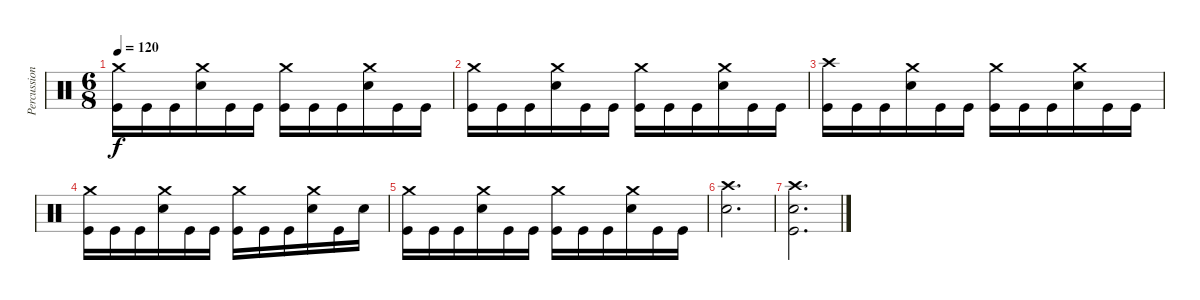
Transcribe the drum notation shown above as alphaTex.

\track ("Percussion" "Percussion") {instrument percussion}
\staff {score}
\articulation defaults
\ts (6 8)
\tempo 120
\clef neutral
\ks c
("Crash medium (hit)" "Kick (hit)").16{dy f} "Kick (hit)".16 "Kick (hit)".16 ("Crash medium (hit)" "Snare (hit) 2").16 "Kick (hit)".16 "Kick (hit)".16 ("Crash medium (hit)" "Kick (hit)").16 "Kick (hit)".16 "Kick (hit)".16 ("Crash medium (hit)" "Snare (hit) 2").16 "Kick (hit)".16 "Kick (hit)".16 |
("Crash medium (hit)" "Kick (hit)").16 "Kick (hit)".16 "Kick (hit)".16 ("Crash medium (hit)" "Snare (hit) 2").16 "Kick (hit)".16 "Kick (hit)".16 ("Crash medium (hit)" "Kick (hit)").16 "Kick (hit)".16 "Kick (hit)".16 ("Crash medium (hit)" "Snare (hit) 2").16 "Kick (hit)".16 "Kick (hit)".16 |
("Crash high (hit)" "Kick (hit)").16 "Kick (hit)".16 "Kick (hit)".16 ("Crash medium (hit)" "Snare (hit) 2").16 "Kick (hit)".16 "Kick (hit)".16 ("Crash medium (hit)" "Kick (hit)").16 "Kick (hit)".16 "Kick (hit)".16 ("Crash medium (hit)" "Snare (hit) 2").16 "Kick (hit)".16 "Kick (hit)".16 |
("Crash medium (hit)" "Kick (hit)").16 "Kick (hit)".16 "Kick (hit)".16 ("Crash medium (hit)" "Snare (hit) 2").16 "Kick (hit)".16 "Kick (hit)".16 ("Crash medium (hit)" "Kick (hit)").16 "Kick (hit)".16 "Kick (hit)".16 ("Crash medium (hit)" "Snare (hit) 2").16 "Kick (hit)".16 "Snare (hit) 2".16 |
("Crash medium (hit)" "Kick (hit)").16 "Kick (hit)".16 "Kick (hit)".16 ("Crash medium (hit)" "Snare (hit) 2").16 "Kick (hit)".16 "Kick (hit)".16 ("Crash medium (hit)" "Kick (hit)").16 "Kick (hit)".16 "Kick (hit)".16 ("Crash medium (hit)" "Snare (hit) 2").16 "Kick (hit)".16 "Kick (hit)".16 |
("Crash high (hit)" "Snare (hit) 2").2{d} |
("Crash high (hit)" "Snare (hit) 2" "Kick (hit)").2{d}
